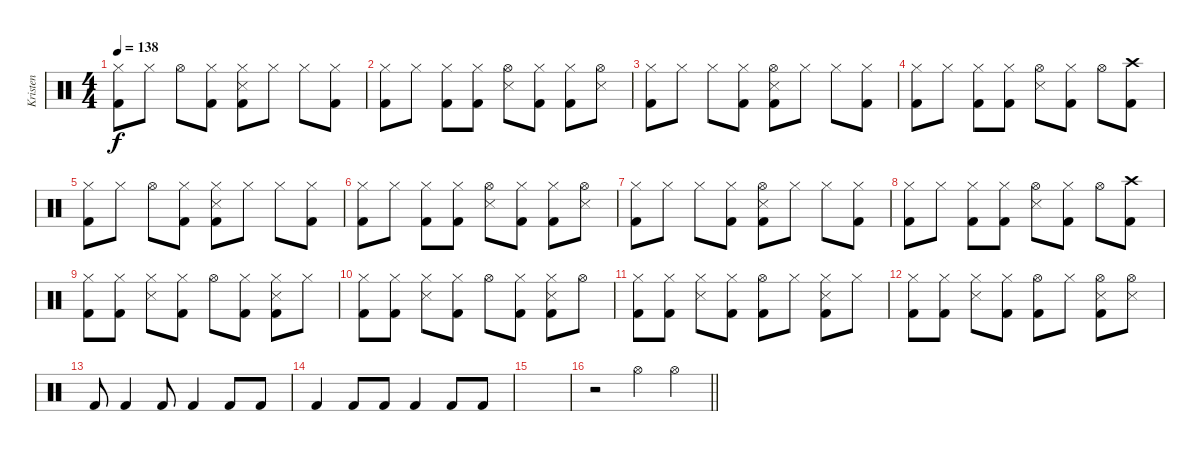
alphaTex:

\track ("Kristen" "Kristen") {instrument percussion}
\staff {score}
\articulation defaults
\ts (4 4)
\tempo 138
\clef neutral
\ks c
("Hi-Hat (closed)" "Kick (hit) 2").8{dy f} "Hi-Hat (closed)".8 "Hi-Hat (open)".8 ("Hi-Hat (closed)" "Kick (hit) 2").8 ("Hi-Hat (closed)" "Snare (side stick) 3" "Kick (hit) 2").8 "Hi-Hat (closed)".8 "Hi-Hat (closed)".8 ("Hi-Hat (closed)" "Kick (hit) 2").8 |
("Hi-Hat (closed)" "Kick (hit) 2").8 "Hi-Hat (closed)".8 ("Hi-Hat (closed)" "Kick (hit) 2").8 ("Hi-Hat (closed)" "Kick (hit) 2").8 ("Hi-Hat (open)" "Snare (side stick) 3").8 ("Hi-Hat (closed)" "Kick (hit) 2").8 ("Hi-Hat (closed)" "Kick (hit) 2").8 ("Hi-Hat (open)" "Snare (side stick) 3").8 |
("Hi-Hat (closed)" "Kick (hit) 2").8 "Hi-Hat (closed)".8 "Hi-Hat (closed)".8 ("Hi-Hat (closed)" "Kick (hit) 2").8 ("Hi-Hat (open)" "Snare (side stick) 3" "Kick (hit) 2").8 "Hi-Hat (closed)".8 "Hi-Hat (closed)".8 ("Hi-Hat (closed)" "Kick (hit) 2").8 |
("Hi-Hat (closed)" "Kick (hit) 2").8 "Hi-Hat (closed)".8 ("Hi-Hat (closed)" "Kick (hit) 2").8 ("Hi-Hat (closed)" "Kick (hit) 2").8 ("Hi-Hat (open)" "Snare (side stick) 3").8 ("Hi-Hat (closed)" "Kick (hit) 2").8 "Hi-Hat (open)".8 ("Crash high (hit)" "Kick (hit) 2").8 |
("Hi-Hat (closed)" "Kick (hit) 2").8 "Hi-Hat (closed)".8 "Hi-Hat (open)".8 ("Hi-Hat (closed)" "Kick (hit) 2").8 ("Hi-Hat (closed)" "Snare (side stick) 3" "Kick (hit) 2").8 "Hi-Hat (closed)".8 "Hi-Hat (closed)".8 ("Hi-Hat (closed)" "Kick (hit) 2").8 |
("Hi-Hat (closed)" "Kick (hit) 2").8 "Hi-Hat (closed)".8 ("Hi-Hat (closed)" "Kick (hit) 2").8 ("Hi-Hat (closed)" "Kick (hit) 2").8 ("Hi-Hat (open)" "Snare (side stick) 3").8 ("Hi-Hat (closed)" "Kick (hit) 2").8 ("Hi-Hat (closed)" "Kick (hit) 2").8 ("Hi-Hat (open)" "Snare (side stick) 3").8 |
("Hi-Hat (closed)" "Kick (hit) 2").8 "Hi-Hat (closed)".8 "Hi-Hat (closed)".8 ("Hi-Hat (closed)" "Kick (hit) 2").8 ("Hi-Hat (open)" "Snare (side stick) 3" "Kick (hit) 2").8 "Hi-Hat (closed)".8 "Hi-Hat (closed)".8 ("Hi-Hat (closed)" "Kick (hit) 2").8 |
("Hi-Hat (closed)" "Kick (hit) 2").8 "Hi-Hat (closed)".8 ("Hi-Hat (closed)" "Kick (hit) 2").8 ("Hi-Hat (closed)" "Kick (hit) 2").8 ("Hi-Hat (open)" "Snare (side stick) 3").8 ("Hi-Hat (closed)" "Kick (hit) 2").8 "Hi-Hat (open)".8 ("Crash high (hit)" "Kick (hit) 2").8 |
("Hi-Hat (closed)" "Kick (hit) 2").8 ("Hi-Hat (closed)" "Kick (hit) 2").8 ("Hi-Hat (closed)" "Snare (side stick) 3").8 ("Hi-Hat (closed)" "Kick (hit) 2").8 "Hi-Hat (open)".8 ("Hi-Hat (closed)" "Kick (hit) 2").8 ("Hi-Hat (closed)" "Snare (side stick) 3" "Kick (hit) 2").8 "Hi-Hat (closed)".8 |
("Hi-Hat (closed)" "Kick (hit) 2").8 ("Hi-Hat (closed)" "Kick (hit) 2").8 ("Hi-Hat (closed)" "Snare (side stick) 3").8 ("Hi-Hat (closed)" "Kick (hit) 2").8 "Hi-Hat (open)".8 ("Hi-Hat (closed)" "Kick (hit) 2").8 ("Hi-Hat (closed)" "Snare (side stick) 3" "Kick (hit) 2").8 "Hi-Hat (open)".8 |
("Hi-Hat (closed)" "Kick (hit) 2").8 ("Hi-Hat (closed)" "Kick (hit) 2").8 ("Hi-Hat (closed)" "Snare (side stick) 3").8 ("Hi-Hat (closed)" "Kick (hit) 2").8 ("Hi-Hat (open)" "Kick (hit) 2").8 "Hi-Hat (closed)".8 ("Hi-Hat (closed)" "Snare (side stick) 3" "Kick (hit) 2").8 "Hi-Hat (closed)".8 |
("Hi-Hat (closed)" "Kick (hit) 2").8 ("Hi-Hat (closed)" "Kick (hit) 2").8 ("Hi-Hat (closed)" "Snare (side stick) 3").8 ("Hi-Hat (closed)" "Kick (hit) 2").8 ("Hi-Hat (open)" "Kick (hit) 2").8 "Hi-Hat (closed)".8 ("Hi-Hat (open)" "Snare (side stick) 3" "Kick (hit) 2").8 ("Hi-Hat (open)" "Snare (side stick) 3").8 |
"Kick (hit) 2".8 "Kick (hit) 2".4 "Kick (hit) 2".8 "Kick (hit) 2".4 "Kick (hit) 2".8 "Kick (hit) 2".8 |
"Kick (hit) 2".4 "Kick (hit) 2".8 "Kick (hit) 2".8 "Kick (hit) 2".4 "Kick (hit) 2".8 "Kick (hit) 2".8 |
|
\barLineRight lightlight
r.2 "Hi-Hat (open)".4 "Hi-Hat (open)".4
